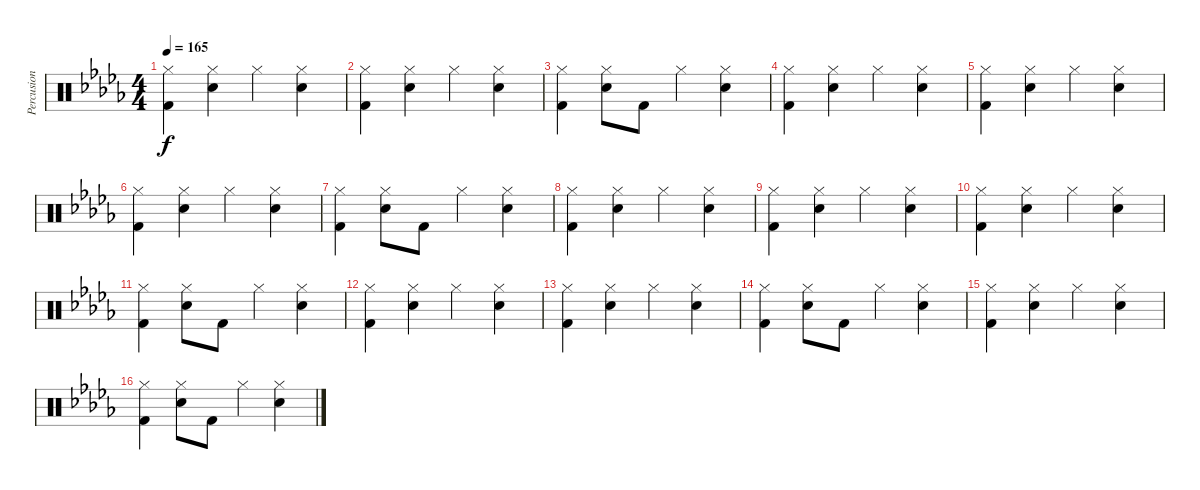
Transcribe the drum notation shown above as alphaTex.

\track ("Percusion (percussions)" "Percusion ") {instrument percussion}
\staff {score}
\articulation defaults
\ts (4 4)
\tempo 165
\clef neutral
\ks db
("Hi-Hat (closed)" "Kick (hit) 2").4{dy f} ("Hi-Hat (closed)" "Snare (hit) 2").4 "Hi-Hat (closed)".4 ("Hi-Hat (closed)" "Snare (hit) 2").4 |
("Hi-Hat (closed)" "Kick (hit) 2").4 ("Hi-Hat (closed)" "Snare (hit) 2").4 "Hi-Hat (closed)".4 ("Hi-Hat (closed)" "Snare (hit) 2").4 |
("Hi-Hat (closed)" "Kick (hit) 2").4 ("Hi-Hat (closed)" "Snare (hit) 2").8 "Kick (hit) 2".8 "Hi-Hat (closed)".4 ("Hi-Hat (closed)" "Snare (hit) 2").4 |
("Hi-Hat (closed)" "Kick (hit) 2").4 ("Hi-Hat (closed)" "Snare (hit) 2").4 "Hi-Hat (closed)".4 ("Hi-Hat (closed)" "Snare (hit) 2").4 |
("Hi-Hat (closed)" "Kick (hit) 2").4 ("Hi-Hat (closed)" "Snare (hit) 2").4 "Hi-Hat (closed)".4 ("Hi-Hat (closed)" "Snare (hit) 2").4 |
("Hi-Hat (closed)" "Kick (hit) 2").4 ("Hi-Hat (closed)" "Snare (hit) 2").4 "Hi-Hat (closed)".4 ("Hi-Hat (closed)" "Snare (hit) 2").4 |
("Hi-Hat (closed)" "Kick (hit) 2").4 ("Hi-Hat (closed)" "Snare (hit) 2").8 "Kick (hit) 2".8 "Hi-Hat (closed)".4 ("Hi-Hat (closed)" "Snare (hit) 2").4 |
("Hi-Hat (closed)" "Kick (hit) 2").4 ("Hi-Hat (closed)" "Snare (hit) 2").4 "Hi-Hat (closed)".4 ("Hi-Hat (closed)" "Snare (hit) 2").4 |
("Hi-Hat (closed)" "Kick (hit) 2").4 ("Hi-Hat (closed)" "Snare (hit) 2").4 "Hi-Hat (closed)".4 ("Hi-Hat (closed)" "Snare (hit) 2").4 |
("Hi-Hat (closed)" "Kick (hit) 2").4 ("Hi-Hat (closed)" "Snare (hit) 2").4 "Hi-Hat (closed)".4 ("Hi-Hat (closed)" "Snare (hit) 2").4 |
("Hi-Hat (closed)" "Kick (hit) 2").4 ("Hi-Hat (closed)" "Snare (hit) 2").8 "Kick (hit) 2".8 "Hi-Hat (closed)".4 ("Hi-Hat (closed)" "Snare (hit) 2").4 |
("Hi-Hat (closed)" "Kick (hit) 2").4 ("Hi-Hat (closed)" "Snare (hit) 2").4 "Hi-Hat (closed)".4 ("Hi-Hat (closed)" "Snare (hit) 2").4 |
("Hi-Hat (closed)" "Kick (hit) 2").4 ("Hi-Hat (closed)" "Snare (hit) 2").4 "Hi-Hat (closed)".4 ("Hi-Hat (closed)" "Snare (hit) 2").4 |
("Hi-Hat (closed)" "Kick (hit) 2").4 ("Hi-Hat (closed)" "Snare (hit) 2").8 "Kick (hit) 2".8 "Hi-Hat (closed)".4 ("Hi-Hat (closed)" "Snare (hit) 2").4 |
("Hi-Hat (closed)" "Kick (hit) 2").4 ("Hi-Hat (closed)" "Snare (hit) 2").4 "Hi-Hat (closed)".4 ("Hi-Hat (closed)" "Snare (hit) 2").4 |
("Hi-Hat (closed)" "Kick (hit) 2").4 ("Hi-Hat (closed)" "Snare (hit) 2").8 "Kick (hit) 2".8 "Hi-Hat (closed)".4 ("Hi-Hat (closed)" "Snare (hit) 2").4
